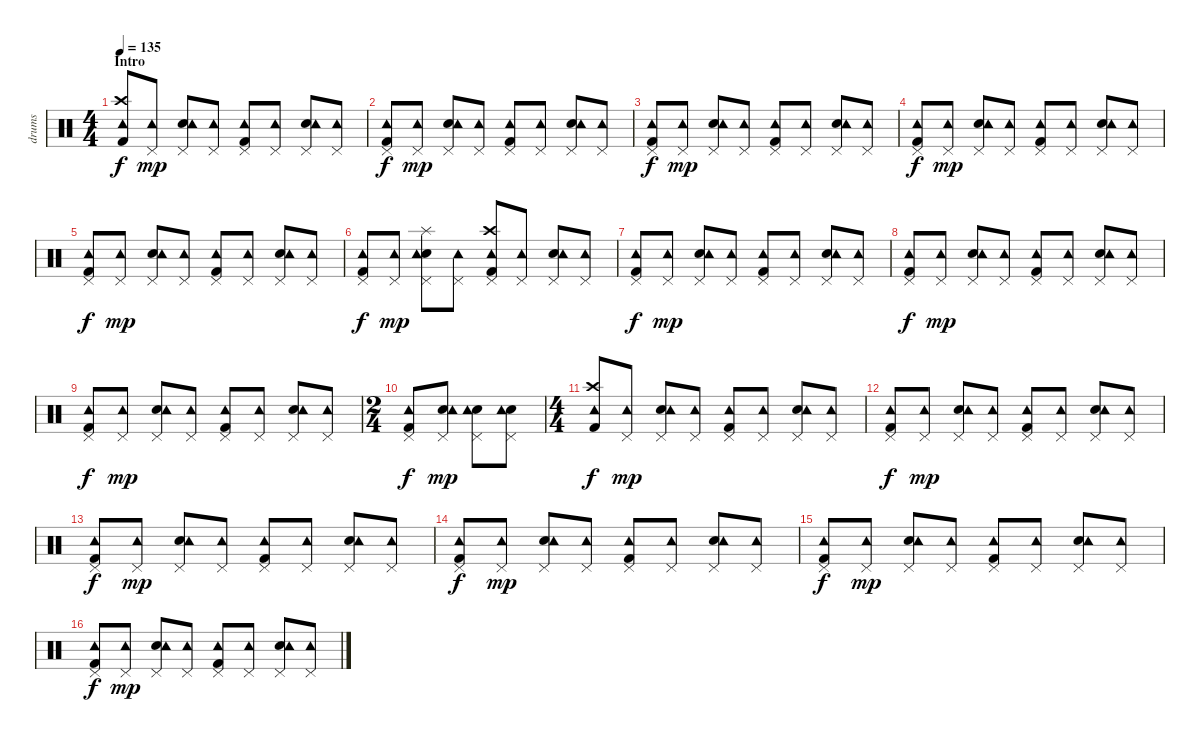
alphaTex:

\track ("drums" "drums") {instrument percussion}
\staff {score}
\articulation defaults
\ts (4 4)
\section ("" "Intro")
\tempo 135
\clef neutral
\ks c
("Kick (hit) 2" "Crash high (hit)" "Tambourine (hit)").8{dy f} ("Pedal Hi-Hat (hit)" "Tambourine (hit)").8{dy mp} ("Electric Snare (hit)" "Pedal Hi-Hat (hit)" "Tambourine (hit)").8 ("Pedal Hi-Hat (hit)" "Tambourine (hit)").8 ("Kick (hit) 2" "Pedal Hi-Hat (hit)" "Tambourine (hit)").8 ("Pedal Hi-Hat (hit)" "Tambourine (hit)").8 ("Electric Snare (hit)" "Pedal Hi-Hat (hit)" "Tambourine (hit)").8 ("Pedal Hi-Hat (hit)" "Tambourine (hit)").8 |
("Kick (hit) 2" "Pedal Hi-Hat (hit)" "Tambourine (hit)").8{dy f} ("Pedal Hi-Hat (hit)" "Tambourine (hit)").8{dy mp} ("Electric Snare (hit)" "Pedal Hi-Hat (hit)" "Tambourine (hit)").8 ("Pedal Hi-Hat (hit)" "Tambourine (hit)").8 ("Kick (hit) 2" "Pedal Hi-Hat (hit)" "Tambourine (hit)").8 ("Pedal Hi-Hat (hit)" "Tambourine (hit)").8 ("Electric Snare (hit)" "Pedal Hi-Hat (hit)" "Tambourine (hit)").8 ("Pedal Hi-Hat (hit)" "Tambourine (hit)").8 |
("Kick (hit) 2" "Pedal Hi-Hat (hit)" "Tambourine (hit)").8{dy f} ("Pedal Hi-Hat (hit)" "Tambourine (hit)").8{dy mp} ("Electric Snare (hit)" "Pedal Hi-Hat (hit)" "Tambourine (hit)").8 ("Pedal Hi-Hat (hit)" "Tambourine (hit)").8 ("Kick (hit) 2" "Pedal Hi-Hat (hit)" "Tambourine (hit)").8 ("Pedal Hi-Hat (hit)" "Tambourine (hit)").8 ("Electric Snare (hit)" "Pedal Hi-Hat (hit)" "Tambourine (hit)").8 ("Pedal Hi-Hat (hit)" "Tambourine (hit)").8 |
("Kick (hit) 2" "Pedal Hi-Hat (hit)" "Tambourine (hit)").8{dy f} ("Pedal Hi-Hat (hit)" "Tambourine (hit)").8{dy mp} ("Electric Snare (hit)" "Pedal Hi-Hat (hit)" "Tambourine (hit)").8 ("Pedal Hi-Hat (hit)" "Tambourine (hit)").8 ("Kick (hit) 2" "Pedal Hi-Hat (hit)" "Tambourine (hit)").8 ("Pedal Hi-Hat (hit)" "Tambourine (hit)").8 ("Electric Snare (hit)" "Pedal Hi-Hat (hit)" "Tambourine (hit)").8 ("Pedal Hi-Hat (hit)" "Tambourine (hit)").8 |
("Kick (hit) 2" "Pedal Hi-Hat (hit)" "Tambourine (hit)").8{dy f} ("Pedal Hi-Hat (hit)" "Tambourine (hit)").8{dy mp} ("Electric Snare (hit)" "Pedal Hi-Hat (hit)" "Tambourine (hit)").8 ("Pedal Hi-Hat (hit)" "Tambourine (hit)").8 ("Kick (hit) 2" "Pedal Hi-Hat (hit)" "Tambourine (hit)").8 ("Pedal Hi-Hat (hit)" "Tambourine (hit)").8 ("Electric Snare (hit)" "Pedal Hi-Hat (hit)" "Tambourine (hit)").8 ("Pedal Hi-Hat (hit)" "Tambourine (hit)").8 |
("Kick (hit) 2" "Pedal Hi-Hat (hit)" "Tambourine (hit)").8{dy f} ("Pedal Hi-Hat (hit)" "Tambourine (hit)").8{dy mp} ("Electric Snare (hit)" "Splash (hit)" "Pedal Hi-Hat (hit)" "Tambourine (hit)").8 ("Pedal Hi-Hat (hit)" "Tambourine (hit)").8 ("Crash high (hit)" "Kick (hit) 2" "Pedal Hi-Hat (hit)" "Tambourine (hit)").8 ("Pedal Hi-Hat (hit)" "Tambourine (hit)").8 ("Electric Snare (hit)" "Pedal Hi-Hat (hit)" "Tambourine (hit)").8 ("Pedal Hi-Hat (hit)" "Tambourine (hit)").8 |
("Kick (hit) 2" "Pedal Hi-Hat (hit)" "Tambourine (hit)").8{dy f} ("Pedal Hi-Hat (hit)" "Tambourine (hit)").8{dy mp} ("Electric Snare (hit)" "Pedal Hi-Hat (hit)" "Tambourine (hit)").8 ("Pedal Hi-Hat (hit)" "Tambourine (hit)").8 ("Kick (hit) 2" "Pedal Hi-Hat (hit)" "Tambourine (hit)").8 ("Pedal Hi-Hat (hit)" "Tambourine (hit)").8 ("Electric Snare (hit)" "Pedal Hi-Hat (hit)" "Tambourine (hit)").8 ("Pedal Hi-Hat (hit)" "Tambourine (hit)").8 |
("Kick (hit) 2" "Pedal Hi-Hat (hit)" "Tambourine (hit)").8{dy f} ("Pedal Hi-Hat (hit)" "Tambourine (hit)").8{dy mp} ("Electric Snare (hit)" "Pedal Hi-Hat (hit)" "Tambourine (hit)").8 ("Pedal Hi-Hat (hit)" "Tambourine (hit)").8 ("Kick (hit) 2" "Pedal Hi-Hat (hit)" "Tambourine (hit)").8 ("Pedal Hi-Hat (hit)" "Tambourine (hit)").8 ("Electric Snare (hit)" "Pedal Hi-Hat (hit)" "Tambourine (hit)").8 ("Pedal Hi-Hat (hit)" "Tambourine (hit)").8 |
("Kick (hit) 2" "Pedal Hi-Hat (hit)" "Tambourine (hit)").8{dy f} ("Pedal Hi-Hat (hit)" "Tambourine (hit)").8{dy mp} ("Electric Snare (hit)" "Pedal Hi-Hat (hit)" "Tambourine (hit)").8 ("Pedal Hi-Hat (hit)" "Tambourine (hit)").8 ("Kick (hit) 2" "Pedal Hi-Hat (hit)" "Tambourine (hit)").8 ("Pedal Hi-Hat (hit)" "Tambourine (hit)").8 ("Electric Snare (hit)" "Pedal Hi-Hat (hit)" "Tambourine (hit)").8 ("Pedal Hi-Hat (hit)" "Tambourine (hit)").8 |
\ts (2 4)
("Kick (hit) 2" "Pedal Hi-Hat (hit)" "Tambourine (hit)").8{dy f} ("Electric Snare (hit)" "Pedal Hi-Hat (hit)" "Tambourine (hit)").8{dy mp} ("Electric Snare (hit)" "Pedal Hi-Hat (hit)" "Tambourine (hit)").8 ("Electric Snare (hit)" "Pedal Hi-Hat (hit)" "Tambourine (hit)").8 |
\ts (4 4)
("Kick (hit) 2" "Crash high (hit)" "Tambourine (hit)").8{dy f} ("Pedal Hi-Hat (hit)" "Tambourine (hit)").8{dy mp} ("Electric Snare (hit)" "Pedal Hi-Hat (hit)" "Tambourine (hit)").8 ("Pedal Hi-Hat (hit)" "Tambourine (hit)").8 ("Kick (hit) 2" "Pedal Hi-Hat (hit)" "Tambourine (hit)").8 ("Pedal Hi-Hat (hit)" "Tambourine (hit)").8 ("Electric Snare (hit)" "Pedal Hi-Hat (hit)" "Tambourine (hit)").8 ("Pedal Hi-Hat (hit)" "Tambourine (hit)").8 |
("Kick (hit) 2" "Pedal Hi-Hat (hit)" "Tambourine (hit)").8{dy f} ("Pedal Hi-Hat (hit)" "Tambourine (hit)").8{dy mp} ("Electric Snare (hit)" "Pedal Hi-Hat (hit)" "Tambourine (hit)").8 ("Pedal Hi-Hat (hit)" "Tambourine (hit)").8 ("Kick (hit) 2" "Pedal Hi-Hat (hit)" "Tambourine (hit)").8 ("Pedal Hi-Hat (hit)" "Tambourine (hit)").8 ("Electric Snare (hit)" "Pedal Hi-Hat (hit)" "Tambourine (hit)").8 ("Pedal Hi-Hat (hit)" "Tambourine (hit)").8 |
("Kick (hit) 2" "Pedal Hi-Hat (hit)" "Tambourine (hit)").8{dy f} ("Pedal Hi-Hat (hit)" "Tambourine (hit)").8{dy mp} ("Electric Snare (hit)" "Pedal Hi-Hat (hit)" "Tambourine (hit)").8 ("Pedal Hi-Hat (hit)" "Tambourine (hit)").8 ("Kick (hit) 2" "Pedal Hi-Hat (hit)" "Tambourine (hit)").8 ("Pedal Hi-Hat (hit)" "Tambourine (hit)").8 ("Electric Snare (hit)" "Pedal Hi-Hat (hit)" "Tambourine (hit)").8 ("Pedal Hi-Hat (hit)" "Tambourine (hit)").8 |
("Kick (hit) 2" "Pedal Hi-Hat (hit)" "Tambourine (hit)").8{dy f} ("Pedal Hi-Hat (hit)" "Tambourine (hit)").8{dy mp} ("Electric Snare (hit)" "Pedal Hi-Hat (hit)" "Tambourine (hit)").8 ("Pedal Hi-Hat (hit)" "Tambourine (hit)").8 ("Kick (hit) 2" "Pedal Hi-Hat (hit)" "Tambourine (hit)").8 ("Pedal Hi-Hat (hit)" "Tambourine (hit)").8 ("Electric Snare (hit)" "Pedal Hi-Hat (hit)" "Tambourine (hit)").8 ("Pedal Hi-Hat (hit)" "Tambourine (hit)").8 |
("Kick (hit) 2" "Pedal Hi-Hat (hit)" "Tambourine (hit)").8{dy f} ("Pedal Hi-Hat (hit)" "Tambourine (hit)").8{dy mp} ("Electric Snare (hit)" "Pedal Hi-Hat (hit)" "Tambourine (hit)").8 ("Pedal Hi-Hat (hit)" "Tambourine (hit)").8 ("Kick (hit) 2" "Pedal Hi-Hat (hit)" "Tambourine (hit)").8 ("Pedal Hi-Hat (hit)" "Tambourine (hit)").8 ("Electric Snare (hit)" "Pedal Hi-Hat (hit)" "Tambourine (hit)").8 ("Pedal Hi-Hat (hit)" "Tambourine (hit)").8 |
("Kick (hit) 2" "Pedal Hi-Hat (hit)" "Tambourine (hit)").8{dy f} ("Pedal Hi-Hat (hit)" "Tambourine (hit)").8{dy mp} ("Electric Snare (hit)" "Pedal Hi-Hat (hit)" "Tambourine (hit)").8 ("Pedal Hi-Hat (hit)" "Tambourine (hit)").8 ("Kick (hit) 2" "Pedal Hi-Hat (hit)" "Tambourine (hit)").8 ("Pedal Hi-Hat (hit)" "Tambourine (hit)").8 ("Electric Snare (hit)" "Pedal Hi-Hat (hit)" "Tambourine (hit)").8 ("Pedal Hi-Hat (hit)" "Tambourine (hit)").8
